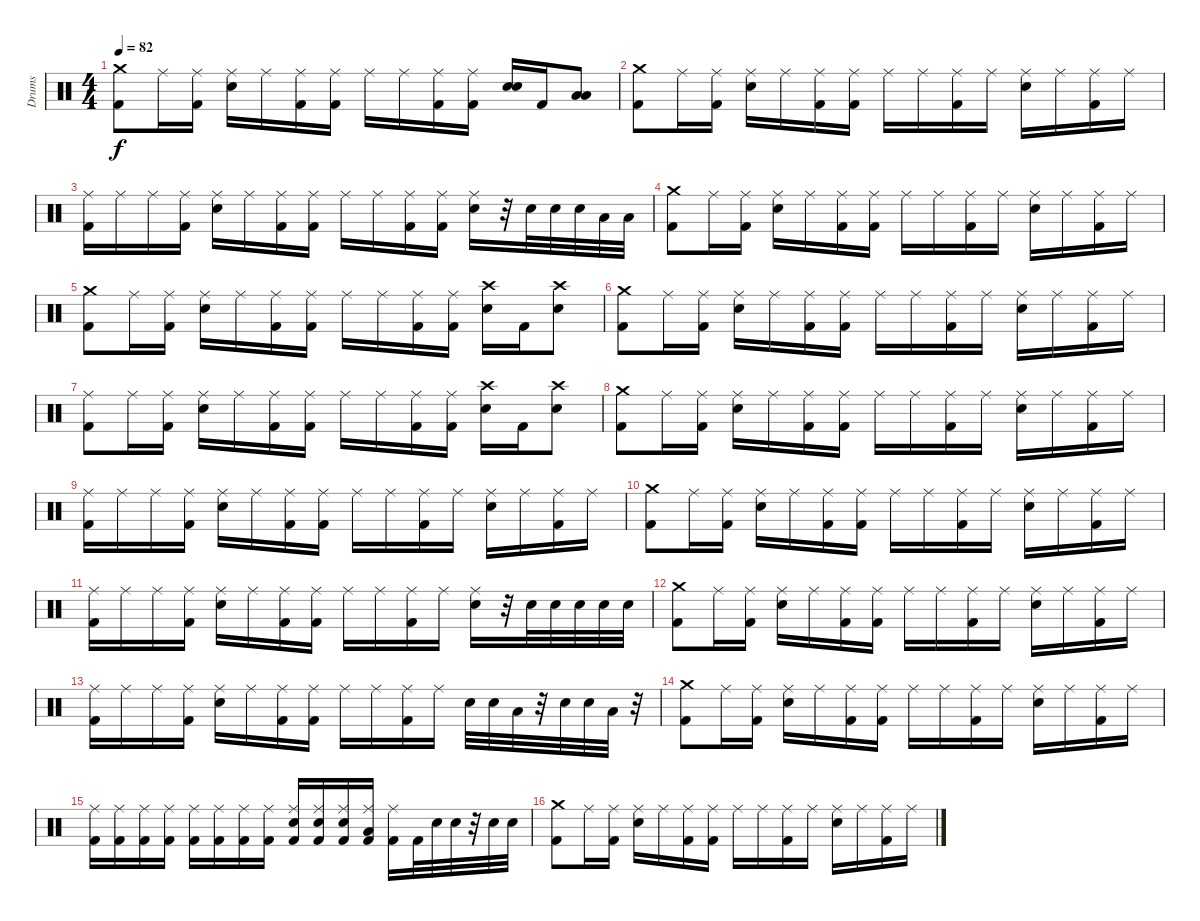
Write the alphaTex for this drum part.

\track ("Drums" "Drums") {instrument percussion}
\staff {score}
\articulation defaults
\ts (4 4)
\tempo 82
\clef neutral
\ks c
("Crash medium (hit)" "Kick (hit) 2").8{dy f} "Ride (middle)".16 ("Ride (middle)" "Kick (hit) 2").16 ("Ride (middle)" "Snare (hit) 2").16 "Ride (middle)".16 ("Ride (middle)" "Kick (hit) 2").16 ("Ride (middle)" "Kick (hit) 2").16 "Ride (middle)".16 "Ride (middle)".16 ("Ride (middle)" "Kick (hit) 2").16 ("Ride (middle)" "Kick (hit) 2").16 ("Snare (hit) 2" "Snare (hit) 2").16{bd 120} "Kick (hit) 2".16 ("Low Tom (hit)" "Low Tom (hit)").8{bd 120} |
("Crash medium (hit)" "Kick (hit) 2").8 "Ride (middle)".16 ("Ride (middle)" "Kick (hit) 2").16 ("Ride (middle)" "Snare (hit) 2").16 "Ride (middle)".16 ("Ride (middle)" "Kick (hit) 2").16 ("Ride (middle)" "Kick (hit) 2").16 "Ride (middle)".16 "Ride (middle)".16 ("Ride (middle)" "Kick (hit) 2").16 "Ride (middle)".16 ("Ride (middle)" "Snare (hit) 2").16 "Ride (middle)".16 ("Ride (middle)" "Kick (hit) 2").16 "Ride (middle)".16 |
("Ride (middle)" "Kick (hit) 2").16 "Ride (middle)".16 "Ride (middle)".16 ("Ride (middle)" "Kick (hit) 2").16 ("Ride (middle)" "Snare (hit) 2").16 "Ride (middle)".16 ("Ride (middle)" "Kick (hit) 2").16 ("Ride (middle)" "Kick (hit) 2").16 "Ride (middle)".16 "Ride (middle)".16 ("Ride (middle)" "Kick (hit) 2").16 ("Ride (middle)" "Kick (hit) 2").16 ("Ride (middle)" "Snare (hit) 2").16 r.32 "Snare (hit) 2".32 "Snare (hit) 2".32 "Snare (hit) 2".32 "Low Tom (hit)".32 "Low Tom (hit)".32 |
("Crash medium (hit)" "Kick (hit) 2").8 "Ride (middle)".16 ("Ride (middle)" "Kick (hit) 2").16 ("Ride (middle)" "Snare (hit) 2").16 "Ride (middle)".16 ("Ride (middle)" "Kick (hit) 2").16 ("Ride (middle)" "Kick (hit) 2").16 "Ride (middle)".16 "Ride (middle)".16 ("Ride (middle)" "Kick (hit) 2").16 "Ride (middle)".16 ("Ride (middle)" "Snare (hit) 2").16 "Ride (middle)".16 ("Ride (middle)" "Kick (hit) 2").16 "Ride (middle)".16 |
("Crash medium (hit)" "Kick (hit) 2").8 "Ride (middle)".16 ("Ride (middle)" "Kick (hit) 2").16 ("Ride (middle)" "Snare (hit) 2").16 "Ride (middle)".16 ("Ride (middle)" "Kick (hit) 2").16 ("Ride (middle)" "Kick (hit) 2").16 "Ride (middle)".16 "Ride (middle)".16 ("Ride (middle)" "Kick (hit) 2").16 ("Ride (middle)" "Kick (hit) 2").16 ("Crash high (hit)" "Snare (hit) 2").16 "Kick (hit) 2".16 ("Crash high (hit)" "Snare (hit) 2").8 |
("Crash medium (hit)" "Kick (hit) 2").8 "Ride (middle)".16 ("Ride (middle)" "Kick (hit) 2").16 ("Ride (middle)" "Snare (hit) 2").16 "Ride (middle)".16 ("Ride (middle)" "Kick (hit) 2").16 ("Ride (middle)" "Kick (hit) 2").16 "Ride (middle)".16 "Ride (middle)".16 ("Ride (middle)" "Kick (hit) 2").16 "Ride (middle)".16 ("Ride (middle)" "Snare (hit) 2").16 "Ride (middle)".16 ("Ride (middle)" "Kick (hit) 2").16 "Ride (middle)".16 |
("Ride (middle)" "Kick (hit) 2").8 "Ride (middle)".16 ("Ride (middle)" "Kick (hit) 2").16 ("Ride (middle)" "Snare (hit) 2").16 "Ride (middle)".16 ("Ride (middle)" "Kick (hit) 2").16 ("Ride (middle)" "Kick (hit) 2").16 "Ride (middle)".16 "Ride (middle)".16 ("Ride (middle)" "Kick (hit) 2").16 ("Ride (middle)" "Kick (hit) 2").16 ("Crash high (hit)" "Snare (hit) 2").16 "Kick (hit) 2".16 ("Crash high (hit)" "Snare (hit) 2").8 |
("Crash medium (hit)" "Kick (hit) 2").8 "Ride (middle)".16 ("Ride (middle)" "Kick (hit) 2").16 ("Ride (middle)" "Snare (hit) 2").16 "Ride (middle)".16 ("Ride (middle)" "Kick (hit) 2").16 ("Ride (middle)" "Kick (hit) 2").16 "Ride (middle)".16 "Ride (middle)".16 ("Ride (middle)" "Kick (hit) 2").16 "Ride (middle)".16 ("Ride (middle)" "Snare (hit) 2").16 "Ride (middle)".16 ("Ride (middle)" "Kick (hit) 2").16 "Ride (middle)".16 |
("Ride (middle)" "Kick (hit) 2").16 "Ride (middle)".16 "Ride (middle)".16 ("Ride (middle)" "Kick (hit) 2").16 ("Ride (middle)" "Snare (hit) 2").16 "Ride (middle)".16 ("Ride (middle)" "Kick (hit) 2").16 ("Ride (middle)" "Kick (hit) 2").16 "Ride (middle)".16 "Ride (middle)".16 ("Ride (middle)" "Kick (hit) 2").16 "Ride (middle)".16 ("Ride (middle)" "Snare (hit) 2").16 "Ride (middle)".16 ("Ride (middle)" "Kick (hit) 2").16 "Ride (middle)".16 |
("Crash medium (hit)" "Kick (hit) 2").8 "Ride (middle)".16 ("Ride (middle)" "Kick (hit) 2").16 ("Ride (middle)" "Snare (hit) 2").16 "Ride (middle)".16 ("Ride (middle)" "Kick (hit) 2").16 ("Ride (middle)" "Kick (hit) 2").16 "Ride (middle)".16 "Ride (middle)".16 ("Ride (middle)" "Kick (hit) 2").16 "Ride (middle)".16 ("Ride (middle)" "Snare (hit) 2").16 "Ride (middle)".16 ("Ride (middle)" "Kick (hit) 2").16 "Ride (middle)".16 |
("Ride (middle)" "Kick (hit) 2").16 "Ride (middle)".16 "Ride (middle)".16 ("Ride (middle)" "Kick (hit) 2").16 ("Ride (middle)" "Snare (hit) 2").16 "Ride (middle)".16 ("Ride (middle)" "Kick (hit) 2").16 ("Ride (middle)" "Kick (hit) 2").16 "Ride (middle)".16 "Ride (middle)".16 ("Ride (middle)" "Kick (hit) 2").16 "Ride (middle)".16 ("Ride (middle)" "Snare (hit) 2").16 r.32 "Snare (hit) 2".32 "Snare (hit) 2".32 "Snare (hit) 2".32 "Snare (hit) 2".32 "Snare (hit) 2".32 |
("Crash medium (hit)" "Kick (hit) 2").8 "Ride (middle)".16 ("Ride (middle)" "Kick (hit) 2").16 ("Ride (middle)" "Snare (hit) 2").16 "Ride (middle)".16 ("Ride (middle)" "Kick (hit) 2").16 ("Ride (middle)" "Kick (hit) 2").16 "Ride (middle)".16 "Ride (middle)".16 ("Ride (middle)" "Kick (hit) 2").16 "Ride (middle)".16 ("Ride (middle)" "Snare (hit) 2").16 "Ride (middle)".16 ("Ride (middle)" "Kick (hit) 2").16 "Ride (middle)".16 |
("Ride (middle)" "Kick (hit) 2").16 "Ride (middle)".16 "Ride (middle)".16 ("Ride (middle)" "Kick (hit) 2").16 ("Ride (middle)" "Snare (hit) 2").16 "Ride (middle)".16 ("Ride (middle)" "Kick (hit) 2").16 ("Ride (middle)" "Kick (hit) 2").16 "Ride (middle)".16 "Ride (middle)".16 ("Ride (middle)" "Kick (hit) 2").16 "Ride (middle)".16 "Snare (hit) 2".32 "Snare (hit) 2".32 "Low Tom (hit)".32 r.32 "Snare (hit) 2".32 "Snare (hit) 2".32 "Low Tom (hit)".32 r.32 |
("Crash medium (hit)" "Kick (hit) 2").8 "Ride (middle)".16 ("Ride (middle)" "Kick (hit) 2").16 ("Ride (middle)" "Snare (hit) 2").16 "Ride (middle)".16 ("Ride (middle)" "Kick (hit) 2").16 ("Ride (middle)" "Kick (hit) 2").16 "Ride (middle)".16 "Ride (middle)".16 ("Ride (middle)" "Kick (hit) 2").16 "Ride (middle)".16 ("Ride (middle)" "Snare (hit) 2").16 "Ride (middle)".16 ("Ride (middle)" "Kick (hit) 2").16 "Ride (middle)".16 |
("Ride (middle)" "Kick (hit) 2").16 ("Ride (middle)" "Kick (hit) 2").16 ("Ride (middle)" "Kick (hit) 2").16 ("Ride (middle)" "Kick (hit) 2").16 ("Ride (middle)" "Kick (hit) 2").16 ("Ride (middle)" "Kick (hit) 2").16 ("Ride (middle)" "Kick (hit) 2").16 ("Ride (middle)" "Kick (hit) 2").16 ("Ride (middle)" "Snare (hit) 2" "Kick (hit) 2").16 ("Ride (middle)" "Snare (hit) 2" "Kick (hit) 2").16 ("Ride (middle)" "Snare (hit) 2" "Kick (hit) 2").16 ("Ride (middle)" "Low Tom (hit)" "Kick (hit) 2").16 ("Ride (middle)" "Kick (hit) 2").16 "Kick (hit) 2".32 "Snare (hit) 2".32 "Snare (hit) 2".32 r.32 "Snare (hit) 2".32 "Snare (hit) 2".32 |
("Crash medium (hit)" "Kick (hit) 2").8 "Ride (middle)".16 ("Ride (middle)" "Kick (hit) 2").16 ("Ride (middle)" "Snare (hit) 2").16 "Ride (middle)".16 ("Ride (middle)" "Kick (hit) 2").16 ("Ride (middle)" "Kick (hit) 2").16 "Ride (middle)".16 "Ride (middle)".16 ("Ride (middle)" "Kick (hit) 2").16 "Ride (middle)".16 ("Ride (middle)" "Snare (hit) 2").16 "Ride (middle)".16 ("Ride (middle)" "Kick (hit) 2").16 "Ride (middle)".16
